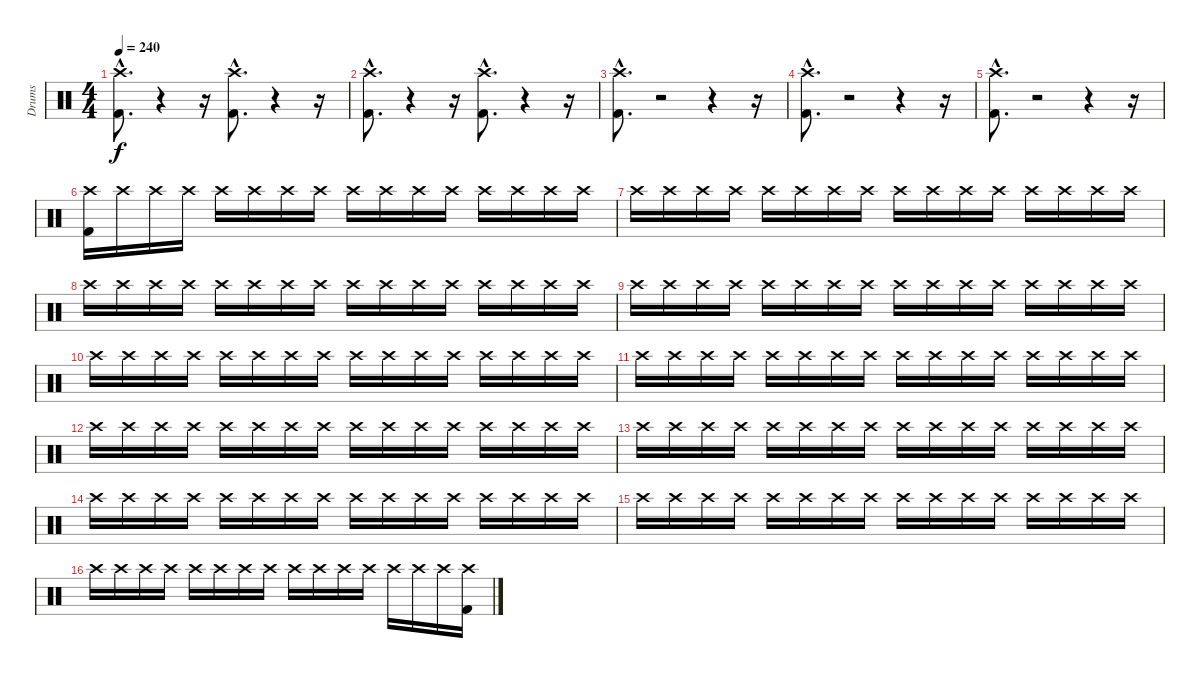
\track ("Drums" "Drums") {instrument percussion}
\staff {score}
\articulation defaults
\ts (4 4)
\tempo 240
\clef neutral
\ks c
("Kick (hit) 2"{hac} "Crash high (hit)"{hac}).8{d dy f} r.4 r.16 ("Kick (hit) 2"{hac} "Crash high (hit)"{hac}).8{d} r.4 r.16 |
("Kick (hit) 2"{hac} "Crash high (hit)"{hac}).8{d} r.4 r.16 ("Kick (hit) 2"{hac} "Crash high (hit)"{hac}).8{d} r.4 r.16 |
("Kick (hit) 2"{hac} "Crash high (hit)"{hac}).8{d} r.2 r.4 r.16 |
("Kick (hit) 2"{hac} "Crash high (hit)"{hac}).8{d} r.2 r.4 r.16 |
("Kick (hit) 2"{hac} "Crash high (hit)"{hac}).8{d} r.2 r.4 r.16 |
("Crash high (hit)" "Kick (hit) 2").16 "Crash high (hit)".16 "Crash high (hit)".16 "Crash high (hit)".16 "Crash high (hit)".16 "Crash high (hit)".16 "Crash high (hit)".16 "Crash high (hit)".16 "Crash high (hit)".16 "Crash high (hit)".16 "Crash high (hit)".16 "Crash high (hit)".16 "Crash high (hit)".16 "Crash high (hit)".16 "Crash high (hit)".16 "Crash high (hit)".16 |
"Crash high (hit)".16 "Crash high (hit)".16 "Crash high (hit)".16 "Crash high (hit)".16 "Crash high (hit)".16 "Crash high (hit)".16 "Crash high (hit)".16 "Crash high (hit)".16 "Crash high (hit)".16 "Crash high (hit)".16 "Crash high (hit)".16 "Crash high (hit)".16 "Crash high (hit)".16 "Crash high (hit)".16 "Crash high (hit)".16 "Crash high (hit)".16 |
"Crash high (hit)".16 "Crash high (hit)".16 "Crash high (hit)".16 "Crash high (hit)".16 "Crash high (hit)".16 "Crash high (hit)".16 "Crash high (hit)".16 "Crash high (hit)".16 "Crash high (hit)".16 "Crash high (hit)".16 "Crash high (hit)".16 "Crash high (hit)".16 "Crash high (hit)".16 "Crash high (hit)".16 "Crash high (hit)".16 "Crash high (hit)".16 |
"Crash high (hit)".16 "Crash high (hit)".16 "Crash high (hit)".16 "Crash high (hit)".16 "Crash high (hit)".16 "Crash high (hit)".16 "Crash high (hit)".16 "Crash high (hit)".16 "Crash high (hit)".16 "Crash high (hit)".16 "Crash high (hit)".16 "Crash high (hit)".16 "Crash high (hit)".16 "Crash high (hit)".16 "Crash high (hit)".16 "Crash high (hit)".16 |
"Crash high (hit)".16 "Crash high (hit)".16 "Crash high (hit)".16 "Crash high (hit)".16 "Crash high (hit)".16 "Crash high (hit)".16 "Crash high (hit)".16 "Crash high (hit)".16 "Crash high (hit)".16 "Crash high (hit)".16 "Crash high (hit)".16 "Crash high (hit)".16 "Crash high (hit)".16 "Crash high (hit)".16 "Crash high (hit)".16 "Crash high (hit)".16 |
"Crash high (hit)".16 "Crash high (hit)".16 "Crash high (hit)".16 "Crash high (hit)".16 "Crash high (hit)".16 "Crash high (hit)".16 "Crash high (hit)".16 "Crash high (hit)".16 "Crash high (hit)".16 "Crash high (hit)".16 "Crash high (hit)".16 "Crash high (hit)".16 "Crash high (hit)".16 "Crash high (hit)".16 "Crash high (hit)".16 "Crash high (hit)".16 |
"Crash high (hit)".16 "Crash high (hit)".16 "Crash high (hit)".16 "Crash high (hit)".16 "Crash high (hit)".16 "Crash high (hit)".16 "Crash high (hit)".16 "Crash high (hit)".16 "Crash high (hit)".16 "Crash high (hit)".16 "Crash high (hit)".16 "Crash high (hit)".16 "Crash high (hit)".16 "Crash high (hit)".16 "Crash high (hit)".16 "Crash high (hit)".16 |
"Crash high (hit)".16 "Crash high (hit)".16 "Crash high (hit)".16 "Crash high (hit)".16 "Crash high (hit)".16 "Crash high (hit)".16 "Crash high (hit)".16 "Crash high (hit)".16 "Crash high (hit)".16 "Crash high (hit)".16 "Crash high (hit)".16 "Crash high (hit)".16 "Crash high (hit)".16 "Crash high (hit)".16 "Crash high (hit)".16 "Crash high (hit)".16 |
"Crash high (hit)".16 "Crash high (hit)".16 "Crash high (hit)".16 "Crash high (hit)".16 "Crash high (hit)".16 "Crash high (hit)".16 "Crash high (hit)".16 "Crash high (hit)".16 "Crash high (hit)".16 "Crash high (hit)".16 "Crash high (hit)".16 "Crash high (hit)".16 "Crash high (hit)".16 "Crash high (hit)".16 "Crash high (hit)".16 "Crash high (hit)".16 |
"Crash high (hit)".16 "Crash high (hit)".16 "Crash high (hit)".16 "Crash high (hit)".16 "Crash high (hit)".16 "Crash high (hit)".16 "Crash high (hit)".16 "Crash high (hit)".16 "Crash high (hit)".16 "Crash high (hit)".16 "Crash high (hit)".16 "Crash high (hit)".16 "Crash high (hit)".16 "Crash high (hit)".16 "Crash high (hit)".16 "Crash high (hit)".16 |
"Crash high (hit)".16 "Crash high (hit)".16 "Crash high (hit)".16 "Crash high (hit)".16 "Crash high (hit)".16 "Crash high (hit)".16 "Crash high (hit)".16 "Crash high (hit)".16 "Crash high (hit)".16 "Crash high (hit)".16 "Crash high (hit)".16 "Crash high (hit)".16 "Crash high (hit)".16 "Crash high (hit)".16 "Crash high (hit)".16 ("Crash high (hit)" "Kick (hit) 2").16
